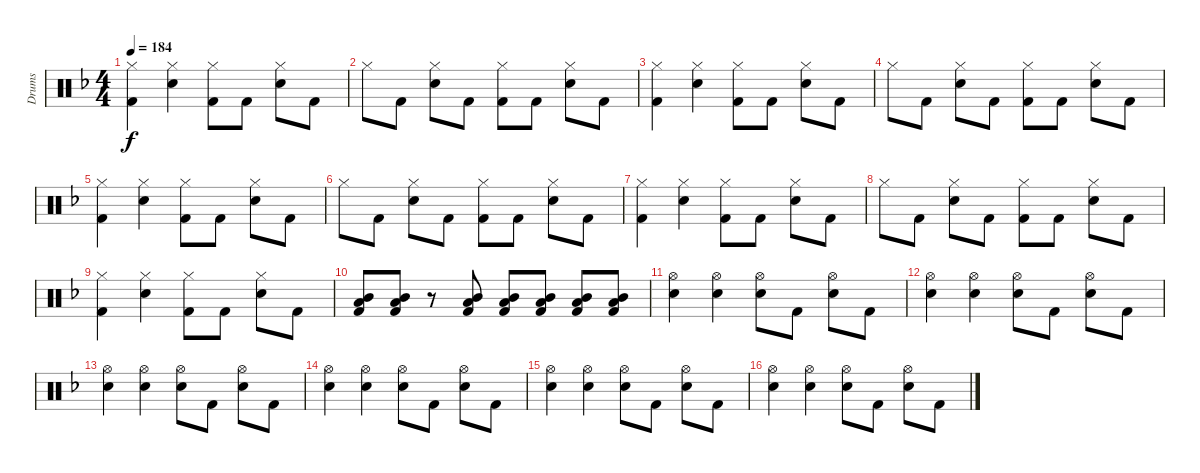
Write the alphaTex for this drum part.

\track ("Drums" "Drums") {instrument percussion}
\staff {score}
\articulation defaults
\ts (4 4)
\tempo 184
\clef neutral
\ks f
("Hi-Hat (closed)" "Kick (hit) 2").4{dy f} ("Hi-Hat (closed)" "Electric Snare (hit)").4 ("Hi-Hat (closed)" "Kick (hit) 2").8 "Kick (hit) 2".8 ("Hi-Hat (closed)" "Electric Snare (hit)").8 "Kick (hit) 2".8 |
"Hi-Hat (closed)".8 "Kick (hit) 2".8 ("Hi-Hat (closed)" "Electric Snare (hit)").8 "Kick (hit) 2".8 ("Hi-Hat (closed)" "Kick (hit) 2").8 "Kick (hit) 2".8 ("Hi-Hat (closed)" "Electric Snare (hit)").8 "Kick (hit) 2".8 |
("Hi-Hat (closed)" "Kick (hit) 2").4 ("Hi-Hat (closed)" "Electric Snare (hit)").4 ("Hi-Hat (closed)" "Kick (hit) 2").8 "Kick (hit) 2".8 ("Hi-Hat (closed)" "Electric Snare (hit)").8 "Kick (hit) 2".8 |
"Hi-Hat (closed)".8 "Kick (hit) 2".8 ("Hi-Hat (closed)" "Electric Snare (hit)").8 "Kick (hit) 2".8 ("Hi-Hat (closed)" "Kick (hit) 2").8 "Kick (hit) 2".8 ("Hi-Hat (closed)" "Electric Snare (hit)").8 "Kick (hit) 2".8 |
("Hi-Hat (closed)" "Kick (hit) 2").4 ("Hi-Hat (closed)" "Electric Snare (hit)").4 ("Hi-Hat (closed)" "Kick (hit) 2").8 "Kick (hit) 2".8 ("Hi-Hat (closed)" "Electric Snare (hit)").8 "Kick (hit) 2".8 |
"Hi-Hat (closed)".8 "Kick (hit) 2".8 ("Hi-Hat (closed)" "Electric Snare (hit)").8 "Kick (hit) 2".8 ("Hi-Hat (closed)" "Kick (hit) 2").8 "Kick (hit) 2".8 ("Hi-Hat (closed)" "Electric Snare (hit)").8 "Kick (hit) 2".8 |
("Hi-Hat (closed)" "Kick (hit) 2").4 ("Hi-Hat (closed)" "Electric Snare (hit)").4 ("Hi-Hat (closed)" "Kick (hit) 2").8 "Kick (hit) 2".8 ("Hi-Hat (closed)" "Electric Snare (hit)").8 "Kick (hit) 2".8 |
"Hi-Hat (closed)".8 "Kick (hit) 2".8 ("Hi-Hat (closed)" "Electric Snare (hit)").8 "Kick (hit) 2".8 ("Hi-Hat (closed)" "Kick (hit) 2").8 "Kick (hit) 2".8 ("Hi-Hat (closed)" "Electric Snare (hit)").8 "Kick (hit) 2".8 |
("Hi-Hat (closed)" "Kick (hit) 2").4 ("Hi-Hat (closed)" "Electric Snare (hit)").4 ("Hi-Hat (closed)" "Kick (hit) 2").8 "Kick (hit) 2".8 ("Hi-Hat (closed)" "Electric Snare (hit)").8 "Kick (hit) 2".8 |
("Mid Tom (hit)" "Low Tom (hit)" "Kick (hit) 2").8 ("Mid Tom (hit)" "Low Tom (hit)" "Kick (hit) 2").8 r.8 ("Mid Tom (hit)" "Low Tom (hit)" "Kick (hit) 2").8 ("Mid Tom (hit)" "Low Tom (hit)" "Kick (hit) 2").8 ("Mid Tom (hit)" "Low Tom (hit)" "Kick (hit) 2").8 ("Mid Tom (hit)" "Low Tom (hit)" "Kick (hit) 2").8 ("Mid Tom (hit)" "Low Tom (hit)" "Kick (hit) 2").8 |
("Hi-Hat (open)" "Electric Snare (hit)").4 ("Hi-Hat (open)" "Electric Snare (hit)").4 ("Hi-Hat (open)" "Electric Snare (hit)").8 "Kick (hit) 2".8 ("Hi-Hat (open)" "Electric Snare (hit)").8 "Kick (hit) 2".8 |
("Hi-Hat (open)" "Electric Snare (hit)").4 ("Hi-Hat (open)" "Electric Snare (hit)").4 ("Hi-Hat (open)" "Electric Snare (hit)").8 "Kick (hit) 2".8 ("Hi-Hat (open)" "Electric Snare (hit)").8 "Kick (hit) 2".8 |
("Hi-Hat (open)" "Electric Snare (hit)").4 ("Hi-Hat (open)" "Electric Snare (hit)").4 ("Hi-Hat (open)" "Electric Snare (hit)").8 "Kick (hit) 2".8 ("Hi-Hat (open)" "Electric Snare (hit)").8 "Kick (hit) 2".8 |
("Hi-Hat (open)" "Electric Snare (hit)").4 ("Hi-Hat (open)" "Electric Snare (hit)").4 ("Hi-Hat (open)" "Electric Snare (hit)").8 "Kick (hit) 2".8 ("Hi-Hat (open)" "Electric Snare (hit)").8 "Kick (hit) 2".8 |
("Hi-Hat (open)" "Electric Snare (hit)").4 ("Hi-Hat (open)" "Electric Snare (hit)").4 ("Hi-Hat (open)" "Electric Snare (hit)").8 "Kick (hit) 2".8 ("Hi-Hat (open)" "Electric Snare (hit)").8 "Kick (hit) 2".8 |
("Hi-Hat (open)" "Electric Snare (hit)").4 ("Hi-Hat (open)" "Electric Snare (hit)").4 ("Hi-Hat (open)" "Electric Snare (hit)").8 "Kick (hit) 2".8 ("Hi-Hat (open)" "Electric Snare (hit)").8 "Kick (hit) 2".8
